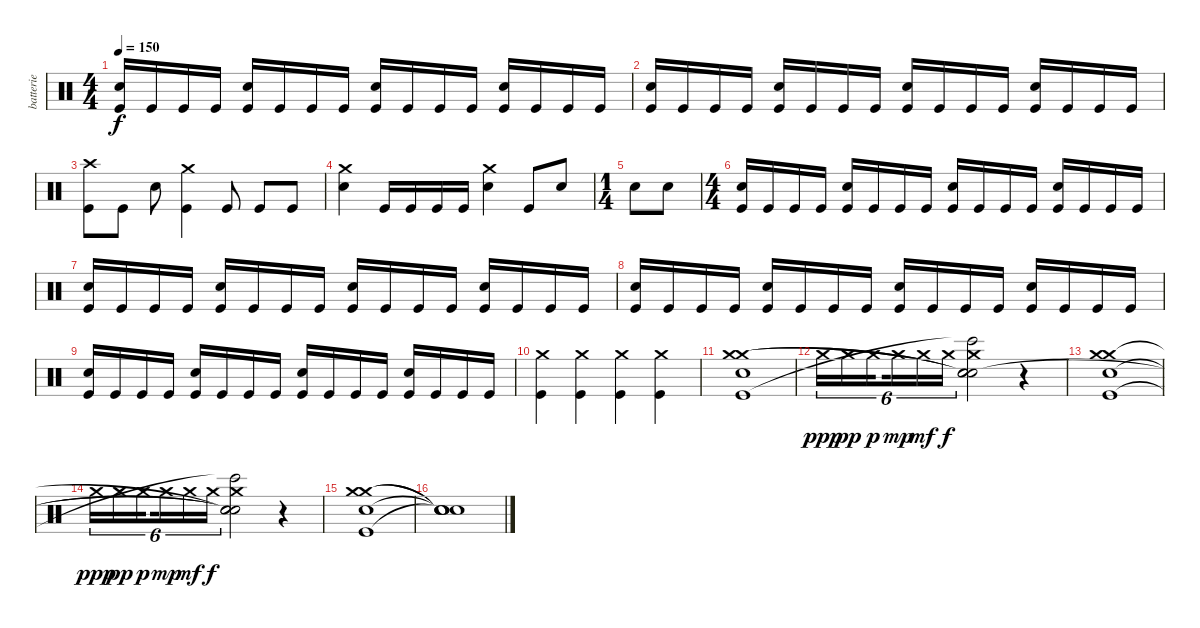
\track ("batterie" "batterie") {instrument percussion}
\staff {score}
\articulation defaults
\ts (4 4)
\tempo 150
\clef neutral
\ks c
("Snare (hit) 2" "Kick (hit)").16{dy f} "Kick (hit)".16 "Kick (hit)".16 "Kick (hit)".16 ("Snare (hit) 2" "Kick (hit)").16 "Kick (hit)".16 "Kick (hit)".16 "Kick (hit)".16 ("Snare (hit) 2" "Kick (hit)").16 "Kick (hit)".16 "Kick (hit)".16 "Kick (hit)".16 ("Snare (hit) 2" "Kick (hit)").16 "Kick (hit)".16 "Kick (hit)".16 "Kick (hit)".16 |
("Snare (hit) 2" "Kick (hit)").16 "Kick (hit)".16 "Kick (hit)".16 "Kick (hit)".16 ("Snare (hit) 2" "Kick (hit)").16 "Kick (hit)".16 "Kick (hit)".16 "Kick (hit)".16 ("Snare (hit) 2" "Kick (hit)").16 "Kick (hit)".16 "Kick (hit)".16 "Kick (hit)".16 ("Snare (hit) 2" "Kick (hit)").16 "Kick (hit)".16 "Kick (hit)".16 "Kick (hit)".16 |
("Crash high (hit)" "Kick (hit)").8 "Kick (hit)".8 "Snare (hit) 2".8 ("Crash medium (hit)" "Kick (hit)").4 "Kick (hit)".8 "Kick (hit)".8 "Kick (hit)".8 |
("Crash medium (hit)" "Snare (hit) 2").4 "Kick (hit)".16 "Kick (hit)".16 "Kick (hit)".16 "Kick (hit)".16 ("Crash medium (hit)" "Snare (hit) 2").4 "Kick (hit)".8 "Snare (hit) 2".8 |
\ts (1 4)
"Snare (hit) 2".8 "Snare (hit) 2".8 |
\ts (4 4)
("Snare (hit) 2" "Kick (hit)").16 "Kick (hit)".16 "Kick (hit)".16 "Kick (hit)".16 ("Snare (hit) 2" "Kick (hit)").16 "Kick (hit)".16 "Kick (hit)".16 "Kick (hit)".16 ("Snare (hit) 2" "Kick (hit)").16 "Kick (hit)".16 "Kick (hit)".16 "Kick (hit)".16 ("Snare (hit) 2" "Kick (hit)").16 "Kick (hit)".16 "Kick (hit)".16 "Kick (hit)".16 |
("Snare (hit) 2" "Kick (hit)").16 "Kick (hit)".16 "Kick (hit)".16 "Kick (hit)".16 ("Snare (hit) 2" "Kick (hit)").16 "Kick (hit)".16 "Kick (hit)".16 "Kick (hit)".16 ("Snare (hit) 2" "Kick (hit)").16 "Kick (hit)".16 "Kick (hit)".16 "Kick (hit)".16 ("Snare (hit) 2" "Kick (hit)").16 "Kick (hit)".16 "Kick (hit)".16 "Kick (hit)".16 |
("Snare (hit) 2" "Kick (hit)").16 "Kick (hit)".16 "Kick (hit)".16 "Kick (hit)".16 ("Snare (hit) 2" "Kick (hit)").16 "Kick (hit)".16 "Kick (hit)".16 "Kick (hit)".16 ("Snare (hit) 2" "Kick (hit)").16 "Kick (hit)".16 "Kick (hit)".16 "Kick (hit)".16 ("Snare (hit) 2" "Kick (hit)").16 "Kick (hit)".16 "Kick (hit)".16 "Kick (hit)".16 |
("Snare (hit) 2" "Kick (hit)").16 "Kick (hit)".16 "Kick (hit)".16 "Kick (hit)".16 ("Snare (hit) 2" "Kick (hit)").16 "Kick (hit)".16 "Kick (hit)".16 "Kick (hit)".16 ("Snare (hit) 2" "Kick (hit)").16 "Kick (hit)".16 "Kick (hit)".16 "Kick (hit)".16 ("Snare (hit) 2" "Kick (hit)").16 "Kick (hit)".16 "Kick (hit)".16 "Kick (hit)".16 |
("Crash medium (hit)" "Kick (hit)").4 ("Crash medium (hit)" "Kick (hit)").4 ("Crash medium (hit)" "Kick (hit)").4 ("Crash medium (hit)" "Kick (hit)").4 |
("Snare (hit) 2" "Crash medium (hit)" "Crash medium (hit)" "Kick (hit)").1 |
"Crash medium (hit)".16{tu (6 4) dy ppp} "Crash medium (hit)".16{tu (6 4) dy pp} "Crash medium (hit)".16{tu (6 4) dy p beam splitsecondary} "Crash medium (hit)".16{tu (6 4) dy mp} "Crash medium (hit)".16{tu (6 4) dy mf} "Crash medium (hit)".16{tu (6 4) dy f} ("Crash medium (hit)" "Snare (hit)"{t} "Snare (hit)"{t} "Bongo High (hit)"{t} "Snare (hit)").2 r.4 |
("Crash medium (hit)" "Crash medium (hit)" "Snare (hit) 2" "Kick (hit)").1 |
"Crash medium (hit)".16{tu (6 4) dy ppp} "Crash medium (hit)".16{tu (6 4) dy pp} "Crash medium (hit)".16{tu (6 4) dy p beam splitsecondary} "Crash medium (hit)".16{tu (6 4) dy mp} "Crash medium (hit)".16{tu (6 4) dy mf} "Crash medium (hit)".16{tu (6 4) dy f} ("Crash medium (hit)" "Snare (hit)"{t} "Snare (hit)"{t} "Bongo High (hit)"{t} "Snare (hit)"{t}).2 r.4 |
("Snare (hit) 2" "Crash medium (hit)" "Crash medium (hit)" "Kick (hit)").1 |
("Snare (hit)"{t} "Snare (hit)"{t} "Snare (hit)"{t} "Snare (hit)"{t}).1
